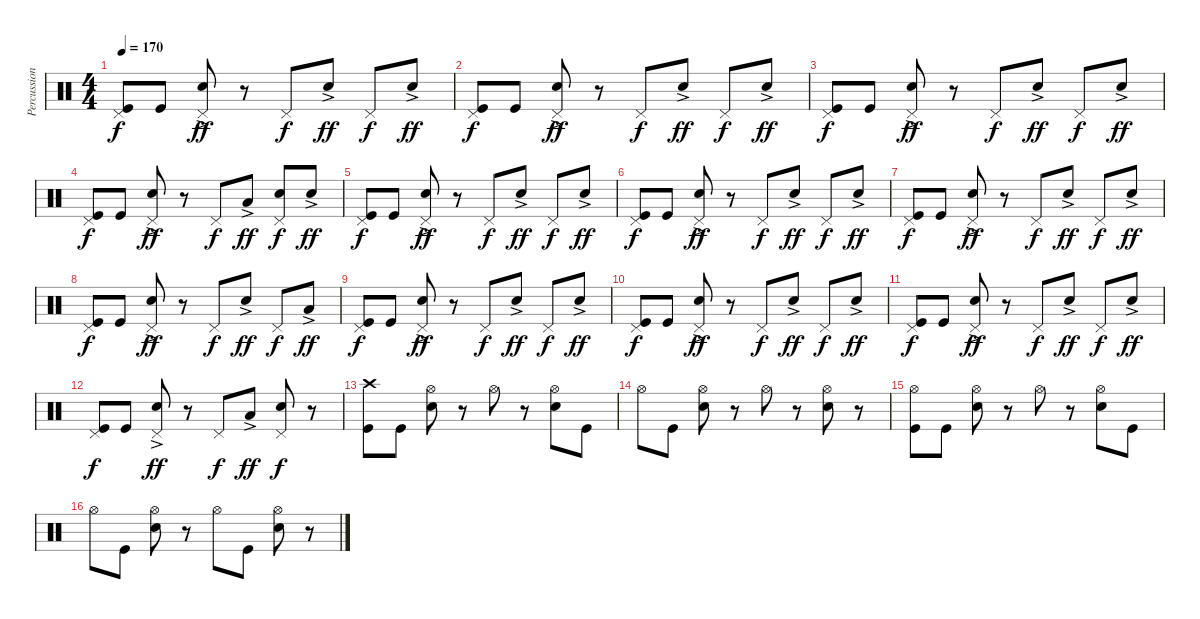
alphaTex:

\track ("Percussion" "Percussion") {instrument percussion}
\staff {score}
\articulation defaults
\ts (4 4)
\tempo 170
\clef neutral
\ks c
("Pedal Hi-Hat (hit)" "Kick (hit)").8{dy f} "Kick (hit)".8 ("Pedal Hi-Hat (hit)" "Snare (hit) 2"{ac}).8{dy ff} r.8 "Pedal Hi-Hat (hit)".8{dy f} "Snare (hit) 2"{ac}.8{dy ff} "Pedal Hi-Hat (hit)".8{dy f} "Snare (hit) 2"{ac}.8{dy ff} |
("Pedal Hi-Hat (hit)" "Kick (hit)").8{dy f} "Kick (hit)".8 ("Pedal Hi-Hat (hit)" "Snare (hit) 2"{ac}).8{dy ff} r.8 "Pedal Hi-Hat (hit)".8{dy f} "Snare (hit) 2"{ac}.8{dy ff} "Pedal Hi-Hat (hit)".8{dy f} "Snare (hit) 2"{ac}.8{dy ff} |
("Pedal Hi-Hat (hit)" "Kick (hit)").8{dy f} "Kick (hit)".8 ("Pedal Hi-Hat (hit)" "Snare (hit) 2"{ac}).8{dy ff} r.8 "Pedal Hi-Hat (hit)".8{dy f} "Snare (hit) 2"{ac}.8{dy ff} "Pedal Hi-Hat (hit)".8{dy f} "Snare (hit) 2"{ac}.8{dy ff} |
("Pedal Hi-Hat (hit)" "Kick (hit)").8{dy f} "Kick (hit)".8 ("Pedal Hi-Hat (hit)" "Snare (hit) 2"{ac}).8{dy ff} r.8 "Pedal Hi-Hat (hit)".8{dy f} "Low Tom (hit)"{ac}.8{dy ff} ("Pedal Hi-Hat (hit)" "Snare (hit) 2").8{dy f} "Snare (hit) 2"{ac}.8{dy ff} |
("Pedal Hi-Hat (hit)" "Kick (hit)").8{dy f} "Kick (hit)".8 ("Pedal Hi-Hat (hit)" "Snare (hit) 2"{ac}).8{dy ff} r.8 "Pedal Hi-Hat (hit)".8{dy f} "Snare (hit) 2"{ac}.8{dy ff} "Pedal Hi-Hat (hit)".8{dy f} "Snare (hit) 2"{ac}.8{dy ff} |
("Pedal Hi-Hat (hit)" "Kick (hit)").8{dy f} "Kick (hit)".8 ("Pedal Hi-Hat (hit)" "Snare (hit) 2"{ac}).8{dy ff} r.8 "Pedal Hi-Hat (hit)".8{dy f} "Snare (hit) 2"{ac}.8{dy ff} "Pedal Hi-Hat (hit)".8{dy f} "Snare (hit) 2"{ac}.8{dy ff} |
("Pedal Hi-Hat (hit)" "Kick (hit)").8{dy f} "Kick (hit)".8 ("Pedal Hi-Hat (hit)" "Snare (hit) 2"{ac}).8{dy ff} r.8 "Pedal Hi-Hat (hit)".8{dy f} "Snare (hit) 2"{ac}.8{dy ff} "Pedal Hi-Hat (hit)".8{dy f} "Snare (hit) 2"{ac}.8{dy ff} |
("Pedal Hi-Hat (hit)" "Kick (hit)").8{dy f} "Kick (hit)".8 ("Pedal Hi-Hat (hit)" "Snare (hit) 2"{ac}).8{dy ff} r.8 "Pedal Hi-Hat (hit)".8{dy f} "Snare (hit) 2"{ac}.8{dy ff} "Pedal Hi-Hat (hit)".8{dy f} "Low Tom (hit)"{ac}.8{dy ff} |
("Pedal Hi-Hat (hit)" "Kick (hit)").8{dy f} "Kick (hit)".8 ("Pedal Hi-Hat (hit)" "Snare (hit) 2"{ac}).8{dy ff} r.8 "Pedal Hi-Hat (hit)".8{dy f} "Snare (hit) 2"{ac}.8{dy ff} "Pedal Hi-Hat (hit)".8{dy f} "Snare (hit) 2"{ac}.8{dy ff} |
("Pedal Hi-Hat (hit)" "Kick (hit)").8{dy f} "Kick (hit)".8 ("Pedal Hi-Hat (hit)" "Snare (hit) 2"{ac}).8{dy ff} r.8 "Pedal Hi-Hat (hit)".8{dy f} "Snare (hit) 2"{ac}.8{dy ff} "Pedal Hi-Hat (hit)".8{dy f} "Snare (hit) 2"{ac}.8{dy ff} |
("Pedal Hi-Hat (hit)" "Kick (hit)").8{dy f} "Kick (hit)".8 ("Pedal Hi-Hat (hit)" "Snare (hit) 2"{ac}).8{dy ff} r.8 "Pedal Hi-Hat (hit)".8{dy f} "Snare (hit) 2"{ac}.8{dy ff} "Pedal Hi-Hat (hit)".8{dy f} "Snare (hit) 2"{ac}.8{dy ff} |
("Pedal Hi-Hat (hit)" "Kick (hit)").8{dy f} "Kick (hit)".8 ("Pedal Hi-Hat (hit)" "Snare (hit) 2"{ac}).8{dy ff} r.8 "Pedal Hi-Hat (hit)".8{dy f} "Low Tom (hit)"{ac}.8{dy ff} ("Pedal Hi-Hat (hit)" "Snare (hit) 2").8{dy f} r.8 |
("Crash high (hit)" "Kick (hit)").8 "Kick (hit)".8 ("Hi-Hat (open)" "Snare (hit) 2").8 r.8 "Hi-Hat (open)".8 r.8 ("Hi-Hat (open)" "Snare (hit) 2").8 "Kick (hit)".8 |
"Hi-Hat (open)".8 "Kick (hit)".8 ("Hi-Hat (open)" "Snare (hit) 2").8 r.8 "Hi-Hat (open)".8 r.8 ("Hi-Hat (open)" "Snare (hit) 2").8 r.8 |
("Hi-Hat (open)" "Kick (hit)").8 "Kick (hit)".8 ("Hi-Hat (open)" "Snare (hit) 2").8 r.8 "Hi-Hat (open)".8 r.8 ("Hi-Hat (open)" "Snare (hit) 2").8 "Kick (hit)".8 |
"Hi-Hat (open)".8 "Kick (hit)".8 ("Hi-Hat (open)" "Snare (hit) 2").8 r.8 "Hi-Hat (open)".8 "Kick (hit)".8 ("Hi-Hat (open)" "Snare (hit) 2").8 r.8
